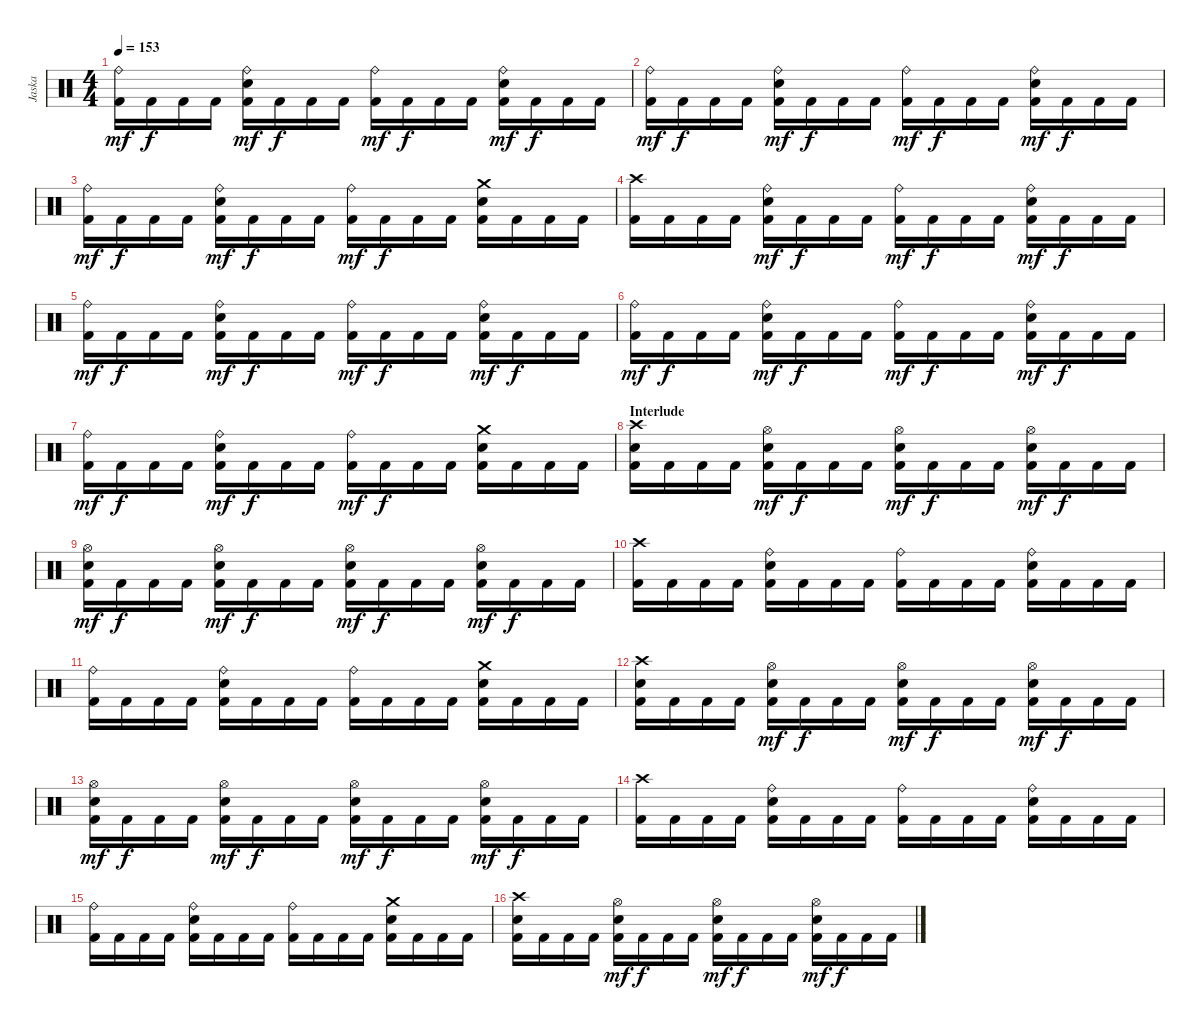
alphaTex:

\track ("Jaska" "Jaska") {instrument percussion}
\staff {score}
\articulation defaults
\ts (4 4)
\tempo 153
\clef neutral
\ks c
("Ride (bell)" "Kick (hit) 2").16{dy mf} "Kick (hit) 2".16{dy f} "Kick (hit) 2".16 "Kick (hit) 2".16 ("Ride (bell)" "Electric Snare (hit)" "Kick (hit) 2").16{dy mf} "Kick (hit) 2".16{dy f} "Kick (hit) 2".16 "Kick (hit) 2".16 ("Ride (bell)" "Kick (hit) 2").16{dy mf} "Kick (hit) 2".16{dy f} "Kick (hit) 2".16 "Kick (hit) 2".16 ("Ride (bell)" "Electric Snare (hit)" "Kick (hit) 2").16{dy mf} "Kick (hit) 2".16{dy f} "Kick (hit) 2".16 "Kick (hit) 2".16 |
("Ride (bell)" "Kick (hit) 2").16{dy mf} "Kick (hit) 2".16{dy f} "Kick (hit) 2".16 "Kick (hit) 2".16 ("Ride (bell)" "Electric Snare (hit)" "Kick (hit) 2").16{dy mf} "Kick (hit) 2".16{dy f} "Kick (hit) 2".16 "Kick (hit) 2".16 ("Ride (bell)" "Kick (hit) 2").16{dy mf} "Kick (hit) 2".16{dy f} "Kick (hit) 2".16 "Kick (hit) 2".16 ("Ride (bell)" "Electric Snare (hit)" "Kick (hit) 2").16{dy mf} "Kick (hit) 2".16{dy f} "Kick (hit) 2".16 "Kick (hit) 2".16 |
("Ride (bell)" "Kick (hit) 2").16{dy mf} "Kick (hit) 2".16{dy f} "Kick (hit) 2".16 "Kick (hit) 2".16 ("Ride (bell)" "Electric Snare (hit)" "Kick (hit) 2").16{dy mf} "Kick (hit) 2".16{dy f} "Kick (hit) 2".16 "Kick (hit) 2".16 ("Ride (bell)" "Kick (hit) 2").16{dy mf} "Kick (hit) 2".16{dy f} "Kick (hit) 2".16 "Kick (hit) 2".16 ("Crash medium (hit)" "Electric Snare (hit)" "Kick (hit) 2").16 "Kick (hit) 2".16 "Kick (hit) 2".16 "Kick (hit) 2".16 |
("Crash high (hit)" "Kick (hit) 2").16 "Kick (hit) 2".16 "Kick (hit) 2".16 "Kick (hit) 2".16 ("Ride (bell)" "Electric Snare (hit)" "Kick (hit) 2").16{dy mf} "Kick (hit) 2".16{dy f} "Kick (hit) 2".16 "Kick (hit) 2".16 ("Ride (bell)" "Kick (hit) 2").16{dy mf} "Kick (hit) 2".16{dy f} "Kick (hit) 2".16 "Kick (hit) 2".16 ("Ride (bell)" "Electric Snare (hit)" "Kick (hit) 2").16{dy mf} "Kick (hit) 2".16{dy f} "Kick (hit) 2".16 "Kick (hit) 2".16 |
("Ride (bell)" "Kick (hit) 2").16{dy mf} "Kick (hit) 2".16{dy f} "Kick (hit) 2".16 "Kick (hit) 2".16 ("Ride (bell)" "Electric Snare (hit)" "Kick (hit) 2").16{dy mf} "Kick (hit) 2".16{dy f} "Kick (hit) 2".16 "Kick (hit) 2".16 ("Ride (bell)" "Kick (hit) 2").16{dy mf} "Kick (hit) 2".16{dy f} "Kick (hit) 2".16 "Kick (hit) 2".16 ("Ride (bell)" "Electric Snare (hit)" "Kick (hit) 2").16{dy mf} "Kick (hit) 2".16{dy f} "Kick (hit) 2".16 "Kick (hit) 2".16 |
("Ride (bell)" "Kick (hit) 2").16{dy mf} "Kick (hit) 2".16{dy f} "Kick (hit) 2".16 "Kick (hit) 2".16 ("Ride (bell)" "Electric Snare (hit)" "Kick (hit) 2").16{dy mf} "Kick (hit) 2".16{dy f} "Kick (hit) 2".16 "Kick (hit) 2".16 ("Ride (bell)" "Kick (hit) 2").16{dy mf} "Kick (hit) 2".16{dy f} "Kick (hit) 2".16 "Kick (hit) 2".16 ("Ride (bell)" "Electric Snare (hit)" "Kick (hit) 2").16{dy mf} "Kick (hit) 2".16{dy f} "Kick (hit) 2".16 "Kick (hit) 2".16 |
("Ride (bell)" "Kick (hit) 2").16{dy mf} "Kick (hit) 2".16{dy f} "Kick (hit) 2".16 "Kick (hit) 2".16 ("Ride (bell)" "Electric Snare (hit)" "Kick (hit) 2").16{dy mf} "Kick (hit) 2".16{dy f} "Kick (hit) 2".16 "Kick (hit) 2".16 ("Ride (bell)" "Kick (hit) 2").16{dy mf} "Kick (hit) 2".16{dy f} "Kick (hit) 2".16 "Kick (hit) 2".16 ("Crash medium (hit)" "Electric Snare (hit)" "Kick (hit) 2").16 "Kick (hit) 2".16 "Kick (hit) 2".16 "Kick (hit) 2".16 |
\section ("" "Interlude")
("Crash high (hit)" "Electric Snare (hit)" "Kick (hit) 2").16 "Kick (hit) 2".16 "Kick (hit) 2".16 "Kick (hit) 2".16 ("Hi-Hat (open)" "Electric Snare (hit)" "Kick (hit) 2").16{dy mf} "Kick (hit) 2".16{dy f} "Kick (hit) 2".16 "Kick (hit) 2".16 ("Hi-Hat (open)" "Electric Snare (hit)" "Kick (hit) 2").16{dy mf} "Kick (hit) 2".16{dy f} "Kick (hit) 2".16 "Kick (hit) 2".16 ("Hi-Hat (open)" "Electric Snare (hit)" "Kick (hit) 2").16{dy mf} "Kick (hit) 2".16{dy f} "Kick (hit) 2".16 "Kick (hit) 2".16 |
("Hi-Hat (open)" "Electric Snare (hit)" "Kick (hit) 2").16{dy mf} "Kick (hit) 2".16{dy f} "Kick (hit) 2".16 "Kick (hit) 2".16 ("Hi-Hat (open)" "Electric Snare (hit)" "Kick (hit) 2").16{dy mf} "Kick (hit) 2".16{dy f} "Kick (hit) 2".16 "Kick (hit) 2".16 ("Hi-Hat (open)" "Electric Snare (hit)" "Kick (hit) 2").16{dy mf} "Kick (hit) 2".16{dy f} "Kick (hit) 2".16 "Kick (hit) 2".16 ("Hi-Hat (open)" "Electric Snare (hit)" "Kick (hit) 2").16{dy mf} "Kick (hit) 2".16{dy f} "Kick (hit) 2".16 "Kick (hit) 2".16 |
("Crash high (hit)" "Kick (hit) 2").16 "Kick (hit) 2".16 "Kick (hit) 2".16 "Kick (hit) 2".16 ("Ride (bell)" "Electric Snare (hit)" "Kick (hit) 2").16 "Kick (hit) 2".16 "Kick (hit) 2".16 "Kick (hit) 2".16 ("Ride (bell)" "Kick (hit) 2").16 "Kick (hit) 2".16 "Kick (hit) 2".16 "Kick (hit) 2".16 ("Ride (bell)" "Electric Snare (hit)" "Kick (hit) 2").16 "Kick (hit) 2".16 "Kick (hit) 2".16 "Kick (hit) 2".16 |
("Ride (bell)" "Kick (hit) 2").16 "Kick (hit) 2".16 "Kick (hit) 2".16 "Kick (hit) 2".16 ("Ride (bell)" "Electric Snare (hit)" "Kick (hit) 2").16 "Kick (hit) 2".16 "Kick (hit) 2".16 "Kick (hit) 2".16 ("Ride (bell)" "Kick (hit) 2").16 "Kick (hit) 2".16 "Kick (hit) 2".16 "Kick (hit) 2".16 ("Crash medium (hit)" "Electric Snare (hit)" "Kick (hit) 2").16 "Kick (hit) 2".16 "Kick (hit) 2".16 "Kick (hit) 2".16 |
("Crash high (hit)" "Electric Snare (hit)" "Kick (hit) 2").16 "Kick (hit) 2".16 "Kick (hit) 2".16 "Kick (hit) 2".16 ("Hi-Hat (open)" "Electric Snare (hit)" "Kick (hit) 2").16{dy mf} "Kick (hit) 2".16{dy f} "Kick (hit) 2".16 "Kick (hit) 2".16 ("Hi-Hat (open)" "Electric Snare (hit)" "Kick (hit) 2").16{dy mf} "Kick (hit) 2".16{dy f} "Kick (hit) 2".16 "Kick (hit) 2".16 ("Hi-Hat (open)" "Electric Snare (hit)" "Kick (hit) 2").16{dy mf} "Kick (hit) 2".16{dy f} "Kick (hit) 2".16 "Kick (hit) 2".16 |
("Hi-Hat (open)" "Electric Snare (hit)" "Kick (hit) 2").16{dy mf} "Kick (hit) 2".16{dy f} "Kick (hit) 2".16 "Kick (hit) 2".16 ("Hi-Hat (open)" "Electric Snare (hit)" "Kick (hit) 2").16{dy mf} "Kick (hit) 2".16{dy f} "Kick (hit) 2".16 "Kick (hit) 2".16 ("Hi-Hat (open)" "Electric Snare (hit)" "Kick (hit) 2").16{dy mf} "Kick (hit) 2".16{dy f} "Kick (hit) 2".16 "Kick (hit) 2".16 ("Hi-Hat (open)" "Electric Snare (hit)" "Kick (hit) 2").16{dy mf} "Kick (hit) 2".16{dy f} "Kick (hit) 2".16 "Kick (hit) 2".16 |
("Crash high (hit)" "Kick (hit) 2").16 "Kick (hit) 2".16 "Kick (hit) 2".16 "Kick (hit) 2".16 ("Ride (bell)" "Electric Snare (hit)" "Kick (hit) 2").16 "Kick (hit) 2".16 "Kick (hit) 2".16 "Kick (hit) 2".16 ("Ride (bell)" "Kick (hit) 2").16 "Kick (hit) 2".16 "Kick (hit) 2".16 "Kick (hit) 2".16 ("Ride (bell)" "Electric Snare (hit)" "Kick (hit) 2").16 "Kick (hit) 2".16 "Kick (hit) 2".16 "Kick (hit) 2".16 |
("Ride (bell)" "Kick (hit) 2").16 "Kick (hit) 2".16 "Kick (hit) 2".16 "Kick (hit) 2".16 ("Ride (bell)" "Electric Snare (hit)" "Kick (hit) 2").16 "Kick (hit) 2".16 "Kick (hit) 2".16 "Kick (hit) 2".16 ("Ride (bell)" "Kick (hit) 2").16 "Kick (hit) 2".16 "Kick (hit) 2".16 "Kick (hit) 2".16 ("Crash medium (hit)" "Electric Snare (hit)" "Kick (hit) 2").16 "Kick (hit) 2".16 "Kick (hit) 2".16 "Kick (hit) 2".16 |
("Crash high (hit)" "Electric Snare (hit)" "Kick (hit) 2").16 "Kick (hit) 2".16 "Kick (hit) 2".16 "Kick (hit) 2".16 ("Hi-Hat (open)" "Electric Snare (hit)" "Kick (hit) 2").16{dy mf} "Kick (hit) 2".16{dy f} "Kick (hit) 2".16 "Kick (hit) 2".16 ("Hi-Hat (open)" "Electric Snare (hit)" "Kick (hit) 2").16{dy mf} "Kick (hit) 2".16{dy f} "Kick (hit) 2".16 "Kick (hit) 2".16 ("Hi-Hat (open)" "Electric Snare (hit)" "Kick (hit) 2").16{dy mf} "Kick (hit) 2".16{dy f} "Kick (hit) 2".16 "Kick (hit) 2".16
